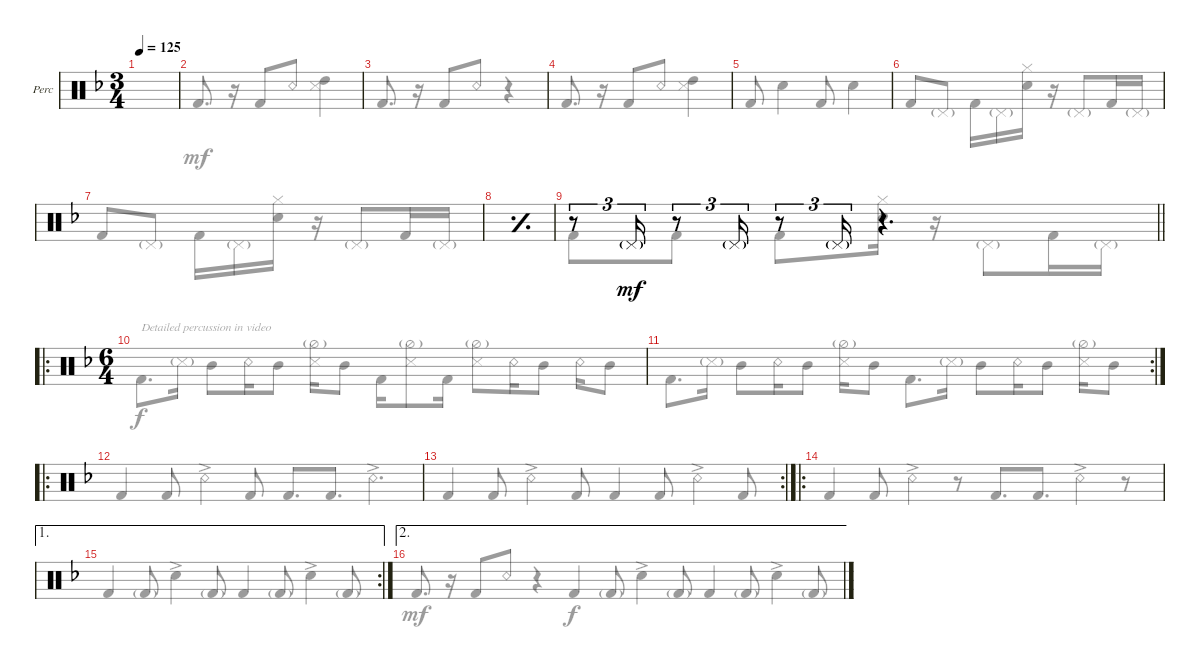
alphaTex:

\defaultSystemsLayout 4
\bracketExtendMode groupsimilarinstruments
\firstSystemTrackNameOrientation horizontal
\otherSystemsTrackNameOrientation horizontal
\track ("Body Percussion" "Perc") {instrument percussion}
\staff {score}
\articulation defaults
\voice
\ts (3 4)
\tempo 125
\clef neutral
\ks dminor
|
|
|
|
|
|
|
\simile simple
|
\barLineRight lightlight
r.8{tu (3 2) beam Up} "Pedal Hi-Hat (hit)"{g acc forcenatural}.16{tu (3 2) dy mf beam Up} r.8{tu (3 2) beam Up} "Pedal Hi-Hat (hit)"{g acc forcenatural}.16{tu (3 2) beam Up} r.8{tu (3 2) beam Up} "Pedal Hi-Hat (hit)"{g acc forcenatural}.16{tu (3 2) beam Up} r.4{d beam Up} |
\ro
\ts (6 4)
|
\rc 2
|
\ro
|
\rc 2
|
\ro
|
\ae 1
\rc 2
|
\ae 2
\voice
\clef neutral
\ottava regular
\simile none
\ks dminor "Kick (hit) 2"{acc forcenatural}.8{d dy mf beam Up}
r.16{beam Up} "Kick (hit) 2"{acc forcenatural}.8{beam Up} "Snare (rim shot)"{acc forcenatural}.8{beam Up} r.4{beam Up} |
"Kick (hit) 2"{acc forcenatural}.8{d beam Up} r.16{beam Up} "Kick (hit) 2"{acc forcenatural}.8{beam Up} "Snare (rim shot)"{acc forcenatural}.8{beam Up} ("High Tom (hit)"{acc forcenatural} "Snare (side stick) 3"{acc forcenatural}).4{beam Down} |
"Kick (hit) 2"{acc forcenatural}.8{d beam Up} r.16{beam Up} "Kick (hit) 2"{acc forcenatural}.8{beam Up} "Snare (rim shot)"{acc forcenatural}.8{beam Up} r.4{beam Up} |
"Kick (hit) 2"{acc forcenatural}.8{d beam Up} r.16{beam Up} "Kick (hit) 2"{acc forcenatural}.8{beam Up} "Snare (rim shot)"{acc forcenatural}.8{beam Up} ("High Tom (hit)"{acc forcenatural} "Snare (side stick) 3"{acc forcenatural}).4{beam Down} |
"Kick (hit) 2"{acc forcenatural}.8{beam Up} "Snare (hit) 2"{acc forcenatural}.4{beam Down} "Kick (hit) 2"{acc forcenatural}.8{beam Up} "Snare (hit) 2"{acc forcenatural}.4{beam Down} |
"Kick (hit) 2"{acc forcenatural}.8{beam Up} "Pedal Hi-Hat (hit)"{g acc forcenatural}.8{beam Up} "Kick (hit) 2"{acc forcenatural}.16{beam Down} "Pedal Hi-Hat (hit)"{g acc forcenatural}.16{beam Down} ("Snare (hit) 2"{acc forcenatural} "Hi-Hat (closed)"{acc forcenatural}).16{beam Down} r.16{beam Down} "Pedal Hi-Hat (hit)"{g acc forcenatural}.8{beam Up} "Kick (hit) 2"{acc forcenatural}.16{beam Up} "Pedal Hi-Hat (hit)"{g acc forcenatural}.16{beam Up} |
"Kick (hit) 2"{acc forcenatural}.8{beam Up} "Pedal Hi-Hat (hit)"{g acc forcenatural}.8{beam Up} "Kick (hit) 2"{acc forcenatural}.16{beam Down} "Pedal Hi-Hat (hit)"{g acc forcenatural}.16{beam Down} ("Snare (hit) 2"{acc forcenatural} "Hi-Hat (closed)"{acc forcenatural}).16{beam Down} r.16{beam Down} "Pedal Hi-Hat (hit)"{g acc forcenatural}.8{beam Up} "Kick (hit) 2"{acc forcenatural}.16{beam Up} "Pedal Hi-Hat (hit)"{g acc forcenatural}.16{beam Up} |
\simile simple
|
\simile none
\barLineRight lightlight "Kick (hit) 2"{acc forcenatural}.8{beam Down} "Kick (hit) 2"{acc forcenatural}.8{beam Down} "Kick (hit) 2"{acc forcenatural}.8{beam Down}
("Snare (hit) 2"{acc forcenatural} "Hi-Hat (closed)"{acc forcenatural}).16{beam Down} r.16{beam Down} "Pedal Hi-Hat (hit)"{g acc forcenatural}.8{beam Down} "Kick (hit) 2"{acc forcenatural}.16{beam Down} "Pedal Hi-Hat (hit)"{g acc forcenatural}.16{beam Down} |
"Kick (hit) 2"{acc forcenatural}.8{d txt "Detailed percussion in video" dy f beam Down} "Snare (side stick) 3"{g acc forcenatural}.16{beam Down} "Mid Tom (hit)"{acc forcenatural}.8{beam Down} "Snare (rim shot)"{acc forcenatural}.16{beam Down} "Mid Tom (hit)"{acc forcenatural}.8{beam Down} ("Snare (side stick) 3"{acc forcenatural} "Hi-Hat (half)"{g acc forcenatural}).16{beam Down} "Mid Tom (hit)"{acc forcenatural}.8{beam Down} "Kick (hit) 2"{acc forcenatural}.16{beam Down} ("Snare (side stick) 3"{acc forcenatural} "Hi-Hat (half)"{g acc forcenatural}).8{beam Down} "Kick (hit) 2"{acc forcenatural}.16{beam Down} ("Snare (side stick) 3"{acc forcenatural} "Hi-Hat (half)"{g acc forcenatural}).8{beam Down} "Snare (rim shot)"{acc forcenatural}.16{beam Down} "Mid Tom (hit)"{acc forcenatural}.8{beam Down} "Snare (rim shot)"{acc forcenatural}.16{beam Down} "Mid Tom (hit)"{acc forcenatural}.8{beam Down} |
"Kick (hit) 2"{acc forcenatural}.8{d beam Down} "Snare (side stick) 3"{g acc forcenatural}.16{beam Down} "Mid Tom (hit)"{acc forcenatural}.8{beam Down} "Snare (rim shot)"{acc forcenatural}.16{beam Down} "Mid Tom (hit)"{acc forcenatural}.8{beam Down} ("Snare (side stick) 3"{acc forcenatural} "Hi-Hat (half)"{g acc forcenatural}).16{beam Down} "Mid Tom (hit)"{acc forcenatural}.8{beam Down} "Kick (hit) 2"{acc forcenatural}.8{d beam Down} "Snare (side stick) 3"{g acc forcenatural}.16{beam Down} "Mid Tom (hit)"{acc forcenatural}.8{beam Down} "Snare (rim shot)"{acc forcenatural}.16{beam Down} "Mid Tom (hit)"{acc forcenatural}.8{beam Down} ("Snare (side stick) 3"{acc forcenatural} "Hi-Hat (half)"{g acc forcenatural}).16{beam Down} "Mid Tom (hit)"{acc forcenatural}.8{beam Down} |
"Kick (hit) 2"{acc forcenatural}.4{beam Up} "Kick (hit) 2"{acc forcenatural}.8{beam Up} "Snare (rim shot)"{ac acc forcenatural}.4{beam Down} "Kick (hit) 2"{acc forcenatural}.8{beam Up} "Kick (hit) 2"{acc forcenatural}.8{d beam Up} "Kick (hit) 2"{acc forcenatural}.8{d beam Up} "Snare (rim shot)"{ac acc forcenatural}.4{d beam Down} |
"Kick (hit) 2"{acc forcenatural}.4{beam Up} "Kick (hit) 2"{acc forcenatural}.8{beam Up} "Snare (rim shot)"{ac acc forcenatural}.4{beam Down} "Kick (hit) 2"{acc forcenatural}.8{beam Up} "Kick (hit) 2"{acc forcenatural}.4{beam Up} "Kick (hit) 2"{acc forcenatural}.8{beam Up} "Snare (rim shot)"{ac acc forcenatural}.4{beam Down} "Kick (hit) 2"{acc forcenatural}.8{beam Up} |
"Kick (hit) 2"{acc forcenatural}.4{beam Up} "Kick (hit) 2"{acc forcenatural}.8{beam Up} "Snare (rim shot)"{ac acc forcenatural}.4{beam Down} r.8{beam Down} "Kick (hit) 2"{acc forcenatural}.8{d beam Up} "Kick (hit) 2"{acc forcenatural}.8{d beam Up} "Snare (rim shot)"{ac acc forcenatural}.4{beam Down} r.8{beam Down} |
"Kick (hit) 2"{acc forcenatural}.4{beam Up} "Kick (hit) 2"{g acc forcenatural}.8{beam Up} "Snare (hit) 2"{ac acc forcenatural}.4{beam Down} "Kick (hit) 2"{g acc forcenatural}.8{beam Up} "Kick (hit) 2"{acc forcenatural}.4{beam Up} "Kick (hit) 2"{g acc forcenatural}.8{beam Up} "Snare (hit) 2"{ac acc forcenatural}.4{beam Down} "Kick (hit) 2"{g acc forcenatural}.8{beam Up} |
"Kick (hit) 2"{acc forcenatural}.4{beam Up} "Kick (hit) 2"{g acc forcenatural}.8{beam Up} "Snare (hit) 2"{ac acc forcenatural}.4{beam Down} "Kick (hit) 2"{g acc forcenatural}.8{beam Up} "Kick (hit) 2"{acc forcenatural}.4{beam Up} "Kick (hit) 2"{g acc forcenatural}.8{beam Up} "Snare (hit) 2"{ac acc forcenatural}.4{beam Down} "Kick (hit) 2"{g acc forcenatural}.8{beam Up}
